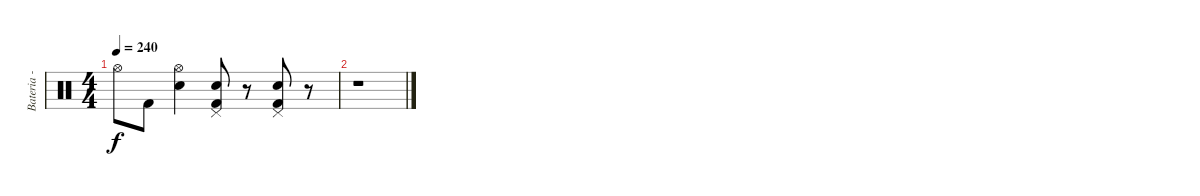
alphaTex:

\track ("Bateria - Larzon" "Bateria - ") {instrument percussion}
\staff {score}
\articulation defaults
\ts (4 4)
\tempo 240
\clef neutral
\ks c "Hi-Hat (open)".8{dy f} "Kick (hit) 2".8
("Hi-Hat (open)" "Snare (hit) 2").4 ("Pedal Hi-Hat (hit)" "Snare (hit) 2" "Kick (hit) 2").8 r.8 ("Pedal Hi-Hat (hit)" "Snare (hit) 2" "Kick (hit) 2").8 r.8 |
r.1
